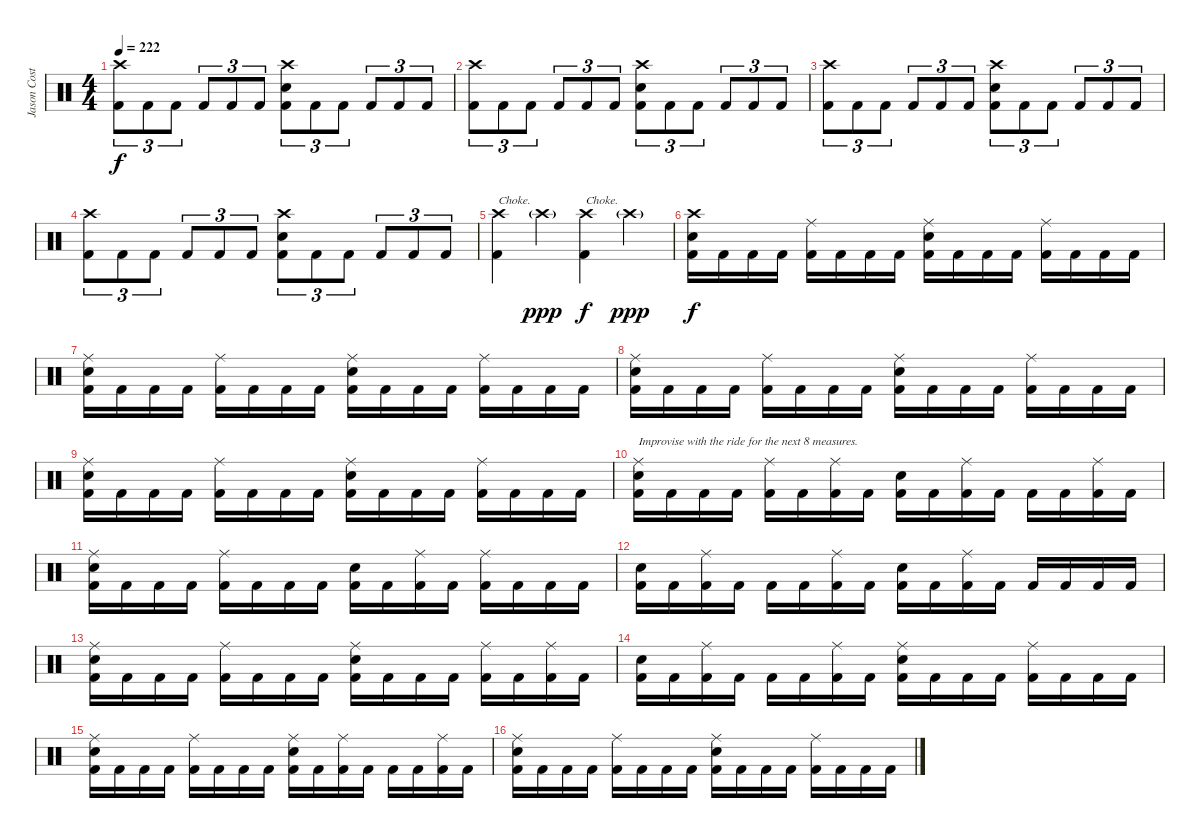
\track ("Jason Costa" "Jason Cost") {instrument percussion}
\staff {score}
\articulation defaults
\ts (4 4)
\tempo 222
\clef neutral
\ks c
("Crash high (hit)" "Kick (hit) 2").8{tu (3 2) dy f} "Kick (hit) 2".8{tu (3 2)} "Kick (hit) 2".8{tu (3 2)} "Kick (hit) 2".8{tu (3 2)} "Kick (hit) 2".8{tu (3 2)} "Kick (hit) 2".8{tu (3 2)} ("Crash high (hit)" "Electric Snare (hit)" "Kick (hit) 2").8{tu (3 2)} "Kick (hit) 2".8{tu (3 2)} "Kick (hit) 2".8{tu (3 2)} "Kick (hit) 2".8{tu (3 2)} "Kick (hit) 2".8{tu (3 2)} "Kick (hit) 2".8{tu (3 2)} |
("Crash high (hit)" "Kick (hit) 2").8{tu (3 2)} "Kick (hit) 2".8{tu (3 2)} "Kick (hit) 2".8{tu (3 2)} "Kick (hit) 2".8{tu (3 2)} "Kick (hit) 2".8{tu (3 2)} "Kick (hit) 2".8{tu (3 2)} ("Crash high (hit)" "Electric Snare (hit)" "Kick (hit) 2").8{tu (3 2)} "Kick (hit) 2".8{tu (3 2)} "Kick (hit) 2".8{tu (3 2)} "Kick (hit) 2".8{tu (3 2)} "Kick (hit) 2".8{tu (3 2)} "Kick (hit) 2".8{tu (3 2)} |
("Crash high (hit)" "Kick (hit) 2").8{tu (3 2)} "Kick (hit) 2".8{tu (3 2)} "Kick (hit) 2".8{tu (3 2)} "Kick (hit) 2".8{tu (3 2)} "Kick (hit) 2".8{tu (3 2)} "Kick (hit) 2".8{tu (3 2)} ("Crash high (hit)" "Electric Snare (hit)" "Kick (hit) 2").8{tu (3 2)} "Kick (hit) 2".8{tu (3 2)} "Kick (hit) 2".8{tu (3 2)} "Kick (hit) 2".8{tu (3 2)} "Kick (hit) 2".8{tu (3 2)} "Kick (hit) 2".8{tu (3 2)} |
("Crash high (hit)" "Kick (hit) 2").8{tu (3 2)} "Kick (hit) 2".8{tu (3 2)} "Kick (hit) 2".8{tu (3 2)} "Kick (hit) 2".8{tu (3 2)} "Kick (hit) 2".8{tu (3 2)} "Kick (hit) 2".8{tu (3 2)} ("Crash high (hit)" "Electric Snare (hit)" "Kick (hit) 2").8{tu (3 2)} "Kick (hit) 2".8{tu (3 2)} "Kick (hit) 2".8{tu (3 2)} "Kick (hit) 2".8{tu (3 2)} "Kick (hit) 2".8{tu (3 2)} "Kick (hit) 2".8{tu (3 2)} |
("Crash high (hit)" "Kick (hit) 2").4{txt "Choke."} "Crash high (hit)"{g}.4{dy ppp} ("Crash high (hit)" "Kick (hit) 2").4{txt "Choke." dy f} "Crash high (hit)"{g}.4{dy ppp} |
("Crash high (hit)" "Electric Snare (hit)" "Kick (hit) 2").16{dy f} "Kick (hit) 2".16 "Kick (hit) 2".16 "Kick (hit) 2".16 ("Ride (middle)" "Kick (hit) 2").16 "Kick (hit) 2".16 "Kick (hit) 2".16 "Kick (hit) 2".16 ("Ride (middle)" "Electric Snare (hit)" "Kick (hit) 2").16 "Kick (hit) 2".16 "Kick (hit) 2".16 "Kick (hit) 2".16 ("Ride (middle)" "Kick (hit) 2").16 "Kick (hit) 2".16 "Kick (hit) 2".16 "Kick (hit) 2".16 |
("Ride (middle)" "Electric Snare (hit)" "Kick (hit) 2").16 "Kick (hit) 2".16 "Kick (hit) 2".16 "Kick (hit) 2".16 ("Ride (middle)" "Kick (hit) 2").16 "Kick (hit) 2".16 "Kick (hit) 2".16 "Kick (hit) 2".16 ("Ride (middle)" "Electric Snare (hit)" "Kick (hit) 2").16 "Kick (hit) 2".16 "Kick (hit) 2".16 "Kick (hit) 2".16 ("Ride (middle)" "Kick (hit) 2").16 "Kick (hit) 2".16 "Kick (hit) 2".16 "Kick (hit) 2".16 |
("Ride (middle)" "Electric Snare (hit)" "Kick (hit) 2").16 "Kick (hit) 2".16 "Kick (hit) 2".16 "Kick (hit) 2".16 ("Ride (middle)" "Kick (hit) 2").16 "Kick (hit) 2".16 "Kick (hit) 2".16 "Kick (hit) 2".16 ("Ride (middle)" "Electric Snare (hit)" "Kick (hit) 2").16 "Kick (hit) 2".16 "Kick (hit) 2".16 "Kick (hit) 2".16 ("Ride (middle)" "Kick (hit) 2").16 "Kick (hit) 2".16 "Kick (hit) 2".16 "Kick (hit) 2".16 |
("Ride (middle)" "Electric Snare (hit)" "Kick (hit) 2").16 "Kick (hit) 2".16 "Kick (hit) 2".16 "Kick (hit) 2".16 ("Ride (middle)" "Kick (hit) 2").16 "Kick (hit) 2".16 "Kick (hit) 2".16 "Kick (hit) 2".16 ("Ride (middle)" "Electric Snare (hit)" "Kick (hit) 2").16 "Kick (hit) 2".16 "Kick (hit) 2".16 "Kick (hit) 2".16 ("Ride (middle)" "Kick (hit) 2").16 "Kick (hit) 2".16 "Kick (hit) 2".16 "Kick (hit) 2".16 |
("Ride (middle)" "Electric Snare (hit)" "Kick (hit) 2").16{txt "Improvise with the ride for the next 8 measures."} "Kick (hit) 2".16 "Kick (hit) 2".16 "Kick (hit) 2".16 ("Ride (middle)" "Kick (hit) 2").16 "Kick (hit) 2".16 ("Ride (middle)" "Kick (hit) 2").16 "Kick (hit) 2".16 ("Electric Snare (hit)" "Kick (hit) 2").16 "Kick (hit) 2".16 ("Ride (middle)" "Kick (hit) 2").16 "Kick (hit) 2".16 "Kick (hit) 2".16 "Kick (hit) 2".16 ("Ride (middle)" "Kick (hit) 2").16 "Kick (hit) 2".16 |
("Ride (middle)" "Electric Snare (hit)" "Kick (hit) 2").16 "Kick (hit) 2".16 "Kick (hit) 2".16 "Kick (hit) 2".16 ("Ride (middle)" "Kick (hit) 2").16 "Kick (hit) 2".16 "Kick (hit) 2".16 "Kick (hit) 2".16 ("Electric Snare (hit)" "Kick (hit) 2").16 "Kick (hit) 2".16 ("Ride (middle)" "Kick (hit) 2").16 "Kick (hit) 2".16 ("Ride (middle)" "Kick (hit) 2").16 "Kick (hit) 2".16 "Kick (hit) 2".16 "Kick (hit) 2".16 |
("Electric Snare (hit)" "Kick (hit) 2").16 "Kick (hit) 2".16 ("Ride (middle)" "Kick (hit) 2").16 "Kick (hit) 2".16 "Kick (hit) 2".16 "Kick (hit) 2".16 ("Ride (middle)" "Kick (hit) 2").16 "Kick (hit) 2".16 ("Electric Snare (hit)" "Kick (hit) 2").16 "Kick (hit) 2".16 ("Ride (middle)" "Kick (hit) 2").16 "Kick (hit) 2".16 "Kick (hit) 2".16 "Kick (hit) 2".16 "Kick (hit) 2".16 "Kick (hit) 2".16 |
("Ride (middle)" "Electric Snare (hit)" "Kick (hit) 2").16 "Kick (hit) 2".16 "Kick (hit) 2".16 "Kick (hit) 2".16 ("Ride (middle)" "Kick (hit) 2").16 "Kick (hit) 2".16 "Kick (hit) 2".16 "Kick (hit) 2".16 ("Ride (middle)" "Electric Snare (hit)" "Kick (hit) 2").16 "Kick (hit) 2".16 "Kick (hit) 2".16 "Kick (hit) 2".16 ("Ride (middle)" "Kick (hit) 2").16 "Kick (hit) 2".16 ("Ride (middle)" "Kick (hit) 2").16 "Kick (hit) 2".16 |
("Electric Snare (hit)" "Kick (hit) 2").16 "Kick (hit) 2".16 ("Ride (middle)" "Kick (hit) 2").16 "Kick (hit) 2".16 "Kick (hit) 2".16 "Kick (hit) 2".16 ("Ride (middle)" "Kick (hit) 2").16 "Kick (hit) 2".16 ("Ride (middle)" "Electric Snare (hit)" "Kick (hit) 2").16 "Kick (hit) 2".16 "Kick (hit) 2".16 "Kick (hit) 2".16 ("Ride (middle)" "Kick (hit) 2").16 "Kick (hit) 2".16 "Kick (hit) 2".16 "Kick (hit) 2".16 |
("Ride (middle)" "Electric Snare (hit)" "Kick (hit) 2").16 "Kick (hit) 2".16 "Kick (hit) 2".16 "Kick (hit) 2".16 ("Ride (middle)" "Kick (hit) 2").16 "Kick (hit) 2".16 "Kick (hit) 2".16 "Kick (hit) 2".16 ("Ride (middle)" "Electric Snare (hit)" "Kick (hit) 2").16 "Kick (hit) 2".16 ("Ride (middle)" "Kick (hit) 2").16 "Kick (hit) 2".16 "Kick (hit) 2".16 "Kick (hit) 2".16 ("Ride (middle)" "Kick (hit) 2").16 "Kick (hit) 2".16 |
("Ride (middle)" "Electric Snare (hit)" "Kick (hit) 2").16 "Kick (hit) 2".16 "Kick (hit) 2".16 "Kick (hit) 2".16 ("Ride (middle)" "Kick (hit) 2").16 "Kick (hit) 2".16 "Kick (hit) 2".16 "Kick (hit) 2".16 ("Ride (middle)" "Electric Snare (hit)" "Kick (hit) 2").16 "Kick (hit) 2".16 "Kick (hit) 2".16 "Kick (hit) 2".16 ("Ride (middle)" "Kick (hit) 2").16 "Kick (hit) 2".16 "Kick (hit) 2".16 "Kick (hit) 2".16
